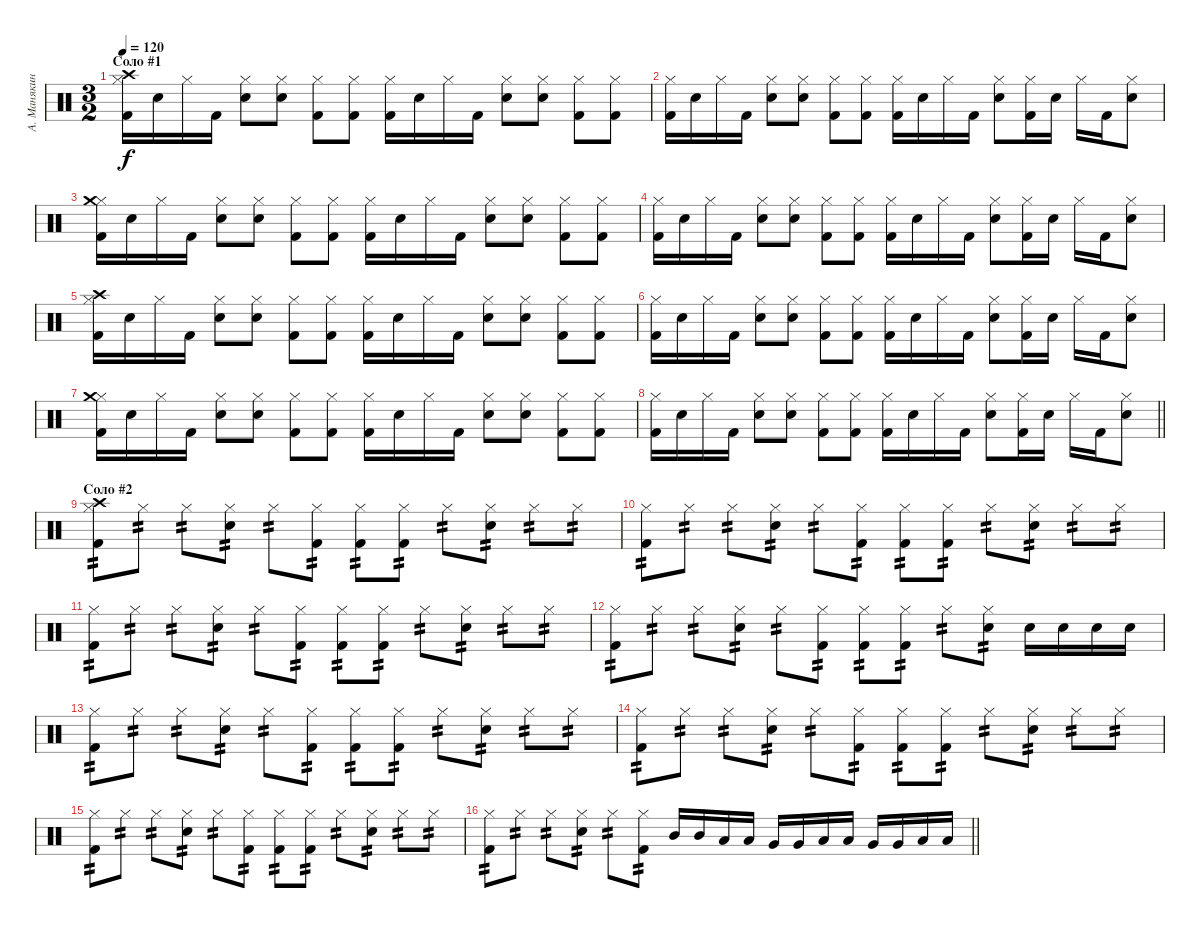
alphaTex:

\track ("А. Манякин" "А. Манякин") {instrument percussion}
\staff {score}
\articulation defaults
\ts (3 2)
\section ("" "Соло #1")
\tempo 120
\clef neutral
\ks c
("Kick (hit) 2" "Hi-Hat (closed)" "Crash high (hit)").16{dy f} "Electric Snare (hit)".16 "Hi-Hat (closed)".16 "Kick (hit) 2".16 ("Electric Snare (hit)" "Hi-Hat (closed)").8 ("Electric Snare (hit)" "Hi-Hat (closed)").8 ("Kick (hit) 2" "Hi-Hat (closed)").8 ("Kick (hit) 2" "Hi-Hat (closed)").8 ("Kick (hit) 2" "Hi-Hat (closed)").16 "Electric Snare (hit)".16 "Hi-Hat (closed)".16 "Kick (hit) 2".16 ("Electric Snare (hit)" "Hi-Hat (closed)").8 ("Electric Snare (hit)" "Hi-Hat (closed)").8 ("Kick (hit) 2" "Hi-Hat (closed)").8 ("Kick (hit) 2" "Hi-Hat (closed)").8 |
("Kick (hit) 2" "Hi-Hat (closed)").16 "Electric Snare (hit)".16 "Hi-Hat (closed)".16 "Kick (hit) 2".16 ("Electric Snare (hit)" "Hi-Hat (closed)").8 ("Electric Snare (hit)" "Hi-Hat (closed)").8 ("Kick (hit) 2" "Hi-Hat (closed)").8 ("Kick (hit) 2" "Hi-Hat (closed)").8 ("Kick (hit) 2" "Hi-Hat (closed)").16 "Electric Snare (hit)".16 "Hi-Hat (closed)".16 "Kick (hit) 2".16 ("Electric Snare (hit)" "Hi-Hat (closed)").8 ("Kick (hit) 2" "Hi-Hat (closed)").16 "Electric Snare (hit)".16 "Hi-Hat (closed)".16 "Kick (hit) 2".16 ("Electric Snare (hit)" "Hi-Hat (closed)").8 |
("Kick (hit) 2" "Hi-Hat (closed)" "Crash medium (hit)").16 "Electric Snare (hit)".16 "Hi-Hat (closed)".16 "Kick (hit) 2".16 ("Electric Snare (hit)" "Hi-Hat (closed)").8 ("Electric Snare (hit)" "Hi-Hat (closed)").8 ("Kick (hit) 2" "Hi-Hat (closed)").8 ("Kick (hit) 2" "Hi-Hat (closed)").8 ("Kick (hit) 2" "Hi-Hat (closed)").16 "Electric Snare (hit)".16 "Hi-Hat (closed)".16 "Kick (hit) 2".16 ("Electric Snare (hit)" "Hi-Hat (closed)").8 ("Electric Snare (hit)" "Hi-Hat (closed)").8 ("Kick (hit) 2" "Hi-Hat (closed)").8 ("Kick (hit) 2" "Hi-Hat (closed)").8 |
("Kick (hit) 2" "Hi-Hat (closed)").16 "Electric Snare (hit)".16 "Hi-Hat (closed)".16 "Kick (hit) 2".16 ("Electric Snare (hit)" "Hi-Hat (closed)").8 ("Electric Snare (hit)" "Hi-Hat (closed)").8 ("Kick (hit) 2" "Hi-Hat (closed)").8 ("Kick (hit) 2" "Hi-Hat (closed)").8 ("Kick (hit) 2" "Hi-Hat (closed)").16 "Electric Snare (hit)".16 "Hi-Hat (closed)".16 "Kick (hit) 2".16 ("Electric Snare (hit)" "Hi-Hat (closed)").8 ("Kick (hit) 2" "Hi-Hat (closed)").16 "Electric Snare (hit)".16 "Hi-Hat (closed)".16 "Kick (hit) 2".16 ("Electric Snare (hit)" "Hi-Hat (closed)").8 |
("Kick (hit) 2" "Hi-Hat (closed)" "Crash high (hit)").16 "Electric Snare (hit)".16 "Hi-Hat (closed)".16 "Kick (hit) 2".16 ("Electric Snare (hit)" "Hi-Hat (closed)").8 ("Electric Snare (hit)" "Hi-Hat (closed)").8 ("Kick (hit) 2" "Hi-Hat (closed)").8 ("Kick (hit) 2" "Hi-Hat (closed)").8 ("Kick (hit) 2" "Hi-Hat (closed)").16 "Electric Snare (hit)".16 "Hi-Hat (closed)".16 "Kick (hit) 2".16 ("Electric Snare (hit)" "Hi-Hat (closed)").8 ("Electric Snare (hit)" "Hi-Hat (closed)").8 ("Kick (hit) 2" "Hi-Hat (closed)").8 ("Kick (hit) 2" "Hi-Hat (closed)").8 |
("Kick (hit) 2" "Hi-Hat (closed)").16 "Electric Snare (hit)".16 "Hi-Hat (closed)".16 "Kick (hit) 2".16 ("Electric Snare (hit)" "Hi-Hat (closed)").8 ("Electric Snare (hit)" "Hi-Hat (closed)").8 ("Kick (hit) 2" "Hi-Hat (closed)").8 ("Kick (hit) 2" "Hi-Hat (closed)").8 ("Kick (hit) 2" "Hi-Hat (closed)").16 "Electric Snare (hit)".16 "Hi-Hat (closed)".16 "Kick (hit) 2".16 ("Electric Snare (hit)" "Hi-Hat (closed)").8 ("Kick (hit) 2" "Hi-Hat (closed)").16 "Electric Snare (hit)".16 "Hi-Hat (closed)".16 "Kick (hit) 2".16 ("Electric Snare (hit)" "Hi-Hat (closed)").8 |
("Kick (hit) 2" "Hi-Hat (closed)" "Crash medium (hit)").16 "Electric Snare (hit)".16 "Hi-Hat (closed)".16 "Kick (hit) 2".16 ("Electric Snare (hit)" "Hi-Hat (closed)").8 ("Electric Snare (hit)" "Hi-Hat (closed)").8 ("Kick (hit) 2" "Hi-Hat (closed)").8 ("Kick (hit) 2" "Hi-Hat (closed)").8 ("Kick (hit) 2" "Hi-Hat (closed)").16 "Electric Snare (hit)".16 "Hi-Hat (closed)".16 "Kick (hit) 2".16 ("Electric Snare (hit)" "Hi-Hat (closed)").8 ("Electric Snare (hit)" "Hi-Hat (closed)").8 ("Kick (hit) 2" "Hi-Hat (closed)").8 ("Kick (hit) 2" "Hi-Hat (closed)").8 |
\barLineRight lightlight
("Kick (hit) 2" "Hi-Hat (closed)").16 "Electric Snare (hit)".16 "Hi-Hat (closed)".16 "Kick (hit) 2".16 ("Electric Snare (hit)" "Hi-Hat (closed)").8 ("Electric Snare (hit)" "Hi-Hat (closed)").8 ("Kick (hit) 2" "Hi-Hat (closed)").8 ("Kick (hit) 2" "Hi-Hat (closed)").8 ("Kick (hit) 2" "Hi-Hat (closed)").16 "Electric Snare (hit)".16 "Hi-Hat (closed)".16 "Kick (hit) 2".16 ("Electric Snare (hit)" "Hi-Hat (closed)").8 ("Kick (hit) 2" "Hi-Hat (closed)").16 "Electric Snare (hit)".16 "Hi-Hat (closed)".16 "Kick (hit) 2".16 ("Electric Snare (hit)" "Hi-Hat (closed)").8 |
\section ("" "Соло #2")
("Kick (hit) 2" "Hi-Hat (closed)" "Crash high (hit)").8{tp 2} "Hi-Hat (closed)".8{tp 2} "Hi-Hat (closed)".8{tp 2} ("Electric Snare (hit)" "Hi-Hat (closed)").8{tp 2} "Hi-Hat (closed)".8{tp 2} ("Kick (hit) 2" "Hi-Hat (closed)").8{tp 2} ("Kick (hit) 2" "Hi-Hat (closed)").8{tp 2} ("Kick (hit) 2" "Hi-Hat (closed)").8{tp 2} "Hi-Hat (closed)".8{tp 2} ("Electric Snare (hit)" "Hi-Hat (closed)").8{tp 2} "Hi-Hat (closed)".8{tp 2} "Hi-Hat (closed)".8{tp 2} |
("Kick (hit) 2" "Hi-Hat (closed)").8{tp 2} "Hi-Hat (closed)".8{tp 2} "Hi-Hat (closed)".8{tp 2} ("Electric Snare (hit)" "Hi-Hat (closed)").8{tp 2} "Hi-Hat (closed)".8{tp 2} ("Kick (hit) 2" "Hi-Hat (closed)").8{tp 2} ("Kick (hit) 2" "Hi-Hat (closed)").8{tp 2} ("Kick (hit) 2" "Hi-Hat (closed)").8{tp 2} "Hi-Hat (closed)".8{tp 2} ("Electric Snare (hit)" "Hi-Hat (closed)").8{tp 2} "Hi-Hat (closed)".8{tp 2} "Hi-Hat (closed)".8{tp 2} |
("Kick (hit) 2" "Hi-Hat (closed)").8{tp 2} "Hi-Hat (closed)".8{tp 2} "Hi-Hat (closed)".8{tp 2} ("Electric Snare (hit)" "Hi-Hat (closed)").8{tp 2} "Hi-Hat (closed)".8{tp 2} ("Kick (hit) 2" "Hi-Hat (closed)").8{tp 2} ("Kick (hit) 2" "Hi-Hat (closed)").8{tp 2} ("Kick (hit) 2" "Hi-Hat (closed)").8{tp 2} "Hi-Hat (closed)".8{tp 2} ("Electric Snare (hit)" "Hi-Hat (closed)").8{tp 2} "Hi-Hat (closed)".8{tp 2} "Hi-Hat (closed)".8{tp 2} |
("Kick (hit) 2" "Hi-Hat (closed)").8{tp 2} "Hi-Hat (closed)".8{tp 2} "Hi-Hat (closed)".8{tp 2} ("Electric Snare (hit)" "Hi-Hat (closed)").8{tp 2} "Hi-Hat (closed)".8{tp 2} ("Kick (hit) 2" "Hi-Hat (closed)").8{tp 2} ("Kick (hit) 2" "Hi-Hat (closed)").8{tp 2} ("Kick (hit) 2" "Hi-Hat (closed)").8{tp 2} "Hi-Hat (closed)".8{tp 2} ("Electric Snare (hit)" "Hi-Hat (closed)").8{tp 2} "Electric Snare (hit)".16 "Electric Snare (hit)".16 "Electric Snare (hit)".16 "Electric Snare (hit)".16 |
("Kick (hit) 2" "Hi-Hat (closed)").8{tp 2} "Hi-Hat (closed)".8{tp 2} "Hi-Hat (closed)".8{tp 2} ("Electric Snare (hit)" "Hi-Hat (closed)").8{tp 2} "Hi-Hat (closed)".8{tp 2} ("Kick (hit) 2" "Hi-Hat (closed)").8{tp 2} ("Kick (hit) 2" "Hi-Hat (closed)").8{tp 2} ("Kick (hit) 2" "Hi-Hat (closed)").8{tp 2} "Hi-Hat (closed)".8{tp 2} ("Electric Snare (hit)" "Hi-Hat (closed)").8{tp 2} "Hi-Hat (closed)".8{tp 2} "Hi-Hat (closed)".8{tp 2} |
("Kick (hit) 2" "Hi-Hat (closed)").8{tp 2} "Hi-Hat (closed)".8{tp 2} "Hi-Hat (closed)".8{tp 2} ("Electric Snare (hit)" "Hi-Hat (closed)").8{tp 2} "Hi-Hat (closed)".8{tp 2} ("Kick (hit) 2" "Hi-Hat (closed)").8{tp 2} ("Kick (hit) 2" "Hi-Hat (closed)").8{tp 2} ("Kick (hit) 2" "Hi-Hat (closed)").8{tp 2} "Hi-Hat (closed)".8{tp 2} ("Electric Snare (hit)" "Hi-Hat (closed)").8{tp 2} "Hi-Hat (closed)".8{tp 2} "Hi-Hat (closed)".8{tp 2} |
("Kick (hit) 2" "Hi-Hat (closed)").8{tp 2} "Hi-Hat (closed)".8{tp 2} "Hi-Hat (closed)".8{tp 2} ("Electric Snare (hit)" "Hi-Hat (closed)").8{tp 2} "Hi-Hat (closed)".8{tp 2} ("Kick (hit) 2" "Hi-Hat (closed)").8{tp 2} ("Kick (hit) 2" "Hi-Hat (closed)").8{tp 2} ("Kick (hit) 2" "Hi-Hat (closed)").8{tp 2} "Hi-Hat (closed)".8{tp 2} ("Electric Snare (hit)" "Hi-Hat (closed)").8{tp 2} "Hi-Hat (closed)".8{tp 2} "Hi-Hat (closed)".8{tp 2} |
\barLineRight lightlight
("Kick (hit) 2" "Hi-Hat (closed)").8{tp 2} "Hi-Hat (closed)".8{tp 2} "Hi-Hat (closed)".8{tp 2} ("Electric Snare (hit)" "Hi-Hat (closed)").8{tp 2} "Hi-Hat (closed)".8{tp 2} ("Kick (hit) 2" "Hi-Hat (closed)").8{tp 2} "Mid Tom (hit)".16 "Mid Tom (hit)".16 "Low Tom (hit)".16 "Low Tom (hit)".16 "Very Low Tom (hit)".16 "Very Low Tom (hit)".16 "Low Tom (hit)".16 "Low Tom (hit)".16 "Very Low Tom (hit)".16 "Very Low Tom (hit)".16 "Low Floor Tom (hit)".16 "Low Floor Tom (hit)".16
